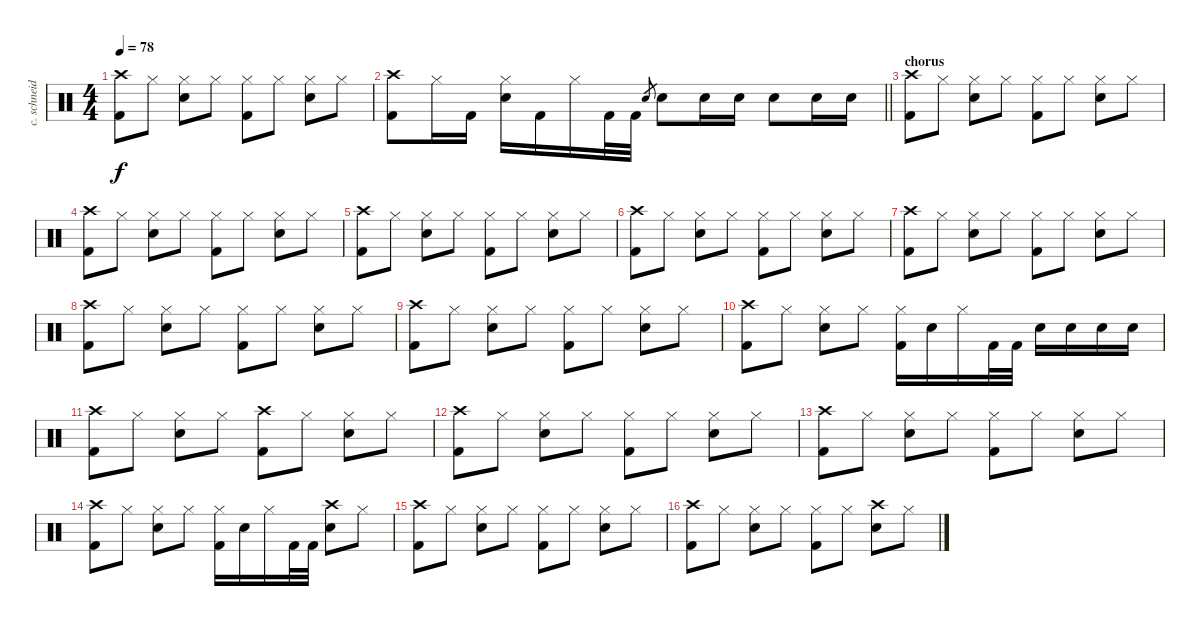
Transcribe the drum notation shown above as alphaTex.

\track ("c. schneider - drums" "c. schneid") {instrument percussion}
\staff {score}
\articulation defaults
\ts (4 4)
\tempo 78
\clef neutral
\ks c
("Crash high (hit)" "Kick (hit) 2").8{dy f} "Hi-Hat (closed)".8 ("Hi-Hat (closed)" "Snare (hit) 2").8 "Hi-Hat (closed)".8 ("Hi-Hat (closed)" "Kick (hit) 2").8 "Hi-Hat (closed)".8 ("Hi-Hat (closed)" "Snare (hit) 2").8 "Hi-Hat (closed)".8 |
\barLineRight lightlight
("Crash high (hit)" "Kick (hit) 2").8 "Hi-Hat (closed)".16 "Kick (hit) 2".16 ("Hi-Hat (closed)" "Snare (hit) 2").16 "Kick (hit) 2".16 "Hi-Hat (closed)".16 "Kick (hit) 2".32 "Kick (hit) 2".32 "Snare (hit) 2".8{gr} "Snare (hit) 2".8 "Snare (hit) 2".16 "Snare (hit) 2".16 "Snare (hit) 2".8 "Snare (hit) 2".16 "Snare (hit) 2".16 |
\section ("" "chorus")
("Crash high (hit)" "Kick (hit) 2").8 "Hi-Hat (closed)".8 ("Hi-Hat (closed)" "Snare (hit) 2").8 "Hi-Hat (closed)".8 ("Hi-Hat (closed)" "Kick (hit) 2").8 "Hi-Hat (closed)".8 ("Hi-Hat (closed)" "Snare (hit) 2").8 "Hi-Hat (closed)".8 |
("Crash high (hit)" "Kick (hit) 2").8 "Hi-Hat (closed)".8 ("Hi-Hat (closed)" "Snare (hit) 2").8 "Hi-Hat (closed)".8 ("Hi-Hat (closed)" "Kick (hit) 2").8 "Hi-Hat (closed)".8 ("Hi-Hat (closed)" "Snare (hit) 2").8 "Hi-Hat (closed)".8 |
("Crash high (hit)" "Kick (hit) 2").8 "Hi-Hat (closed)".8 ("Hi-Hat (closed)" "Snare (hit) 2").8 "Hi-Hat (closed)".8 ("Hi-Hat (closed)" "Kick (hit) 2").8 "Hi-Hat (closed)".8 ("Hi-Hat (closed)" "Snare (hit) 2").8 "Hi-Hat (closed)".8 |
("Crash high (hit)" "Kick (hit) 2").8 "Hi-Hat (closed)".8 ("Hi-Hat (closed)" "Snare (hit) 2").8 "Hi-Hat (closed)".8 ("Hi-Hat (closed)" "Kick (hit) 2").8 "Hi-Hat (closed)".8 ("Hi-Hat (closed)" "Snare (hit) 2").8 "Hi-Hat (closed)".8 |
("Crash high (hit)" "Kick (hit) 2").8 "Hi-Hat (closed)".8 ("Hi-Hat (closed)" "Snare (hit) 2").8 "Hi-Hat (closed)".8 ("Hi-Hat (closed)" "Kick (hit) 2").8 "Hi-Hat (closed)".8 ("Hi-Hat (closed)" "Snare (hit) 2").8 "Hi-Hat (closed)".8 |
("Crash high (hit)" "Kick (hit) 2").8 "Hi-Hat (closed)".8 ("Hi-Hat (closed)" "Snare (hit) 2").8 "Hi-Hat (closed)".8 ("Hi-Hat (closed)" "Kick (hit) 2").8 "Hi-Hat (closed)".8 ("Hi-Hat (closed)" "Snare (hit) 2").8 "Hi-Hat (closed)".8 |
("Crash high (hit)" "Kick (hit) 2").8 "Hi-Hat (closed)".8 ("Hi-Hat (closed)" "Snare (hit) 2").8 "Hi-Hat (closed)".8 ("Hi-Hat (closed)" "Kick (hit) 2").8 "Hi-Hat (closed)".8 ("Hi-Hat (closed)" "Snare (hit) 2").8 "Hi-Hat (closed)".8 |
("Crash high (hit)" "Kick (hit) 2").8 "Hi-Hat (closed)".8 ("Hi-Hat (closed)" "Snare (hit) 2").8 "Hi-Hat (closed)".8 ("Hi-Hat (closed)" "Kick (hit) 2").16 "Snare (hit) 2".16 "Hi-Hat (closed)".16 "Kick (hit) 2".32 "Kick (hit) 2".32 "Snare (hit) 2".16 "Snare (hit) 2".16 "Snare (hit) 2".16 "Snare (hit) 2".16 |
("Crash high (hit)" "Kick (hit) 2").8 "Hi-Hat (closed)".8 ("Hi-Hat (closed)" "Snare (hit) 2").8 "Hi-Hat (closed)".8 ("Crash high (hit)" "Kick (hit) 2").8 "Hi-Hat (closed)".8 ("Hi-Hat (closed)" "Snare (hit) 2").8 "Hi-Hat (closed)".8 |
("Crash high (hit)" "Kick (hit) 2").8 "Hi-Hat (closed)".8 ("Hi-Hat (closed)" "Snare (hit) 2").8 "Hi-Hat (closed)".8 ("Hi-Hat (closed)" "Kick (hit) 2").8 "Hi-Hat (closed)".8 ("Hi-Hat (closed)" "Snare (hit) 2").8 "Hi-Hat (closed)".8 |
("Crash high (hit)" "Kick (hit) 2").8 "Hi-Hat (closed)".8 ("Hi-Hat (closed)" "Snare (hit) 2").8 "Hi-Hat (closed)".8 ("Hi-Hat (closed)" "Kick (hit) 2").8 "Hi-Hat (closed)".8 ("Hi-Hat (closed)" "Snare (hit) 2").8 "Hi-Hat (closed)".8 |
("Crash high (hit)" "Kick (hit) 2").8 "Hi-Hat (closed)".8 ("Hi-Hat (closed)" "Snare (hit) 2").8 "Hi-Hat (closed)".8 ("Hi-Hat (closed)" "Kick (hit) 2").16 "Snare (hit) 2".16 "Hi-Hat (closed)".16 "Kick (hit) 2".32 "Kick (hit) 2".32 ("Crash high (hit)" "Snare (hit) 2").8 "Hi-Hat (closed)".8 |
("Crash high (hit)" "Kick (hit) 2").8 "Hi-Hat (closed)".8 ("Hi-Hat (closed)" "Snare (hit) 2").8 "Hi-Hat (closed)".8 ("Hi-Hat (closed)" "Kick (hit) 2").8 "Hi-Hat (closed)".8 ("Hi-Hat (closed)" "Snare (hit) 2").8 "Hi-Hat (closed)".8 |
("Crash high (hit)" "Kick (hit) 2").8 "Hi-Hat (closed)".8 ("Hi-Hat (closed)" "Snare (hit) 2").8 "Hi-Hat (closed)".8 ("Hi-Hat (closed)" "Kick (hit) 2").8 "Hi-Hat (closed)".8 ("Crash high (hit)" "Snare (hit) 2").8 "Hi-Hat (closed)".8
